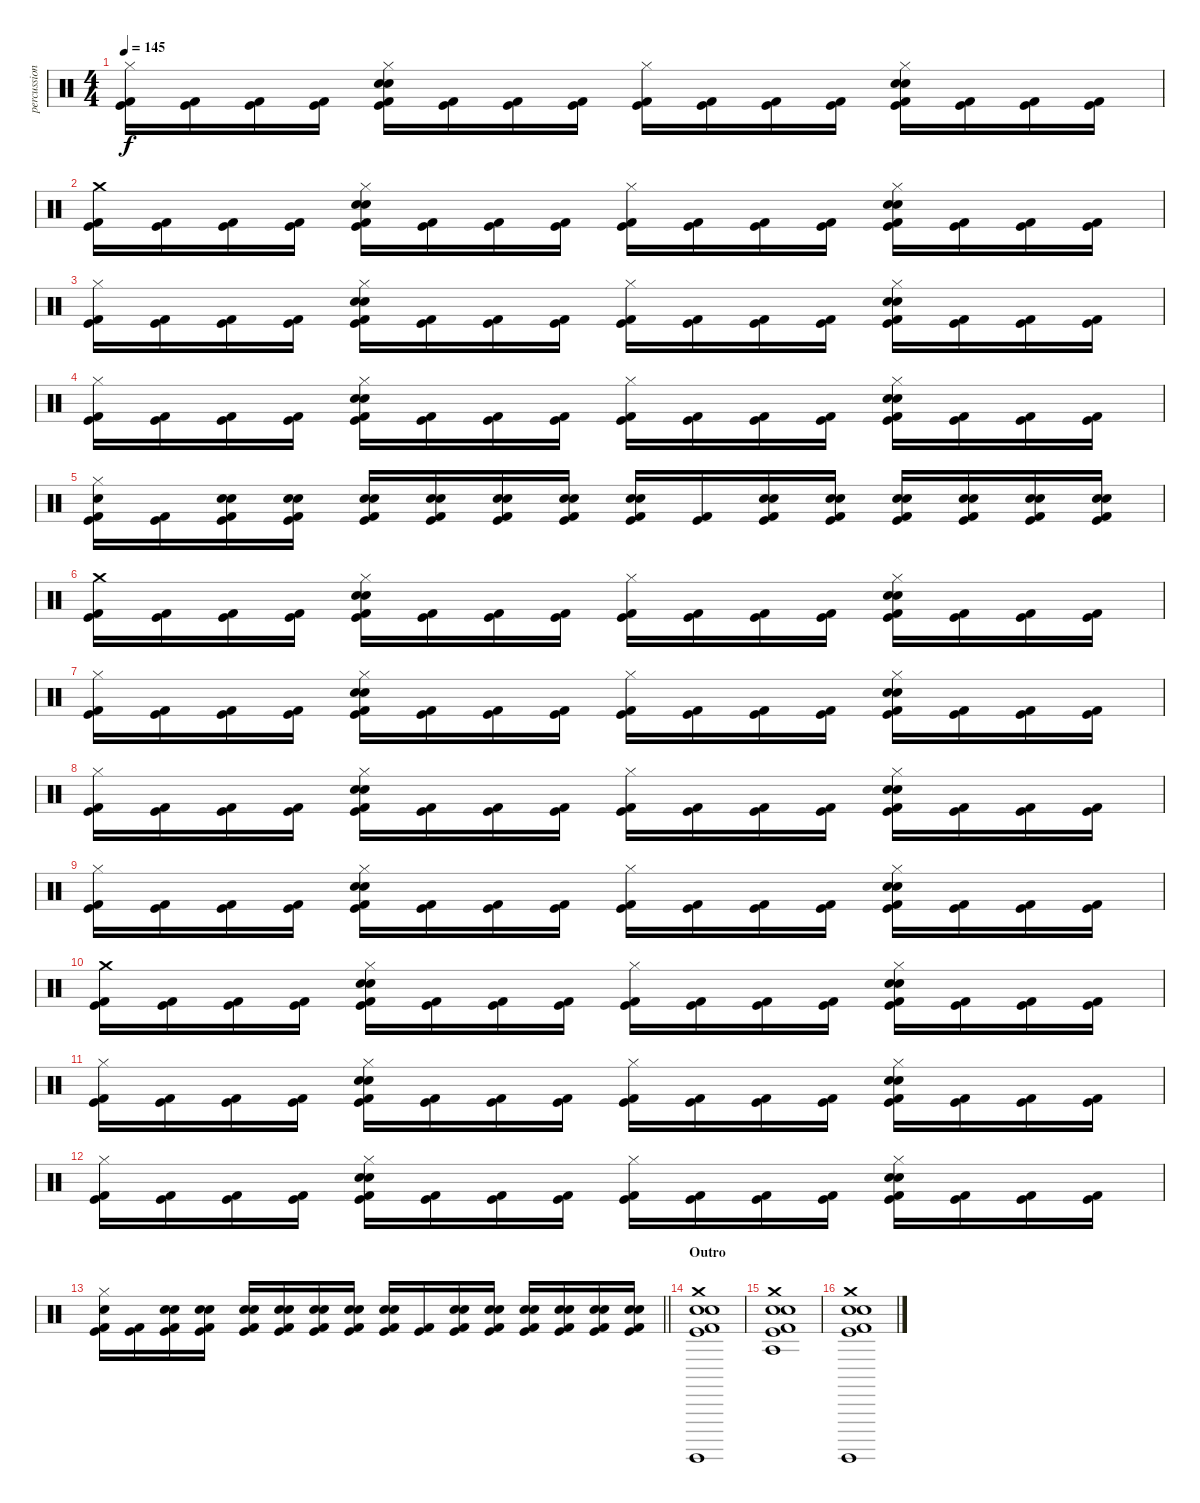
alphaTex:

\track ("percussion" "percussion") {instrument percussion}
\staff {score}
\articulation defaults
\ts (4 4)
\tempo 145
\clef neutral
\ks c
("Hi-Hat (closed)" "Kick (hit) 2" "Kick (hit)").16{dy f} ("Kick (hit) 2" "Kick (hit)").16 ("Kick (hit) 2" "Kick (hit)").16 ("Kick (hit) 2" "Kick (hit)").16 ("Hi-Hat (closed)" "Electric Snare (hit)" "Snare (hit) 2" "Kick (hit) 2" "Kick (hit)").16 ("Kick (hit) 2" "Kick (hit)").16 ("Kick (hit) 2" "Kick (hit)").16 ("Kick (hit) 2" "Kick (hit)").16 ("Hi-Hat (closed)" "Kick (hit) 2" "Kick (hit)").16 ("Kick (hit) 2" "Kick (hit)").16 ("Kick (hit) 2" "Kick (hit)").16 ("Kick (hit) 2" "Kick (hit)").16 ("Hi-Hat (closed)" "Electric Snare (hit)" "Snare (hit) 2" "Kick (hit) 2" "Kick (hit)").16 ("Kick (hit) 2" "Kick (hit)").16 ("Kick (hit) 2" "Kick (hit)").16 ("Kick (hit) 2" "Kick (hit)").16 |
("Crash medium (hit)" "Kick (hit) 2" "Kick (hit)").16 ("Kick (hit) 2" "Kick (hit)").16 ("Kick (hit) 2" "Kick (hit)").16 ("Kick (hit) 2" "Kick (hit)").16 ("Hi-Hat (closed)" "Electric Snare (hit)" "Snare (hit) 2" "Kick (hit) 2" "Kick (hit)").16 ("Kick (hit) 2" "Kick (hit)").16 ("Kick (hit) 2" "Kick (hit)").16 ("Kick (hit) 2" "Kick (hit)").16 ("Hi-Hat (closed)" "Kick (hit) 2" "Kick (hit)").16 ("Kick (hit) 2" "Kick (hit)").16 ("Kick (hit) 2" "Kick (hit)").16 ("Kick (hit) 2" "Kick (hit)").16 ("Hi-Hat (closed)" "Electric Snare (hit)" "Snare (hit) 2" "Kick (hit) 2" "Kick (hit)").16 ("Kick (hit) 2" "Kick (hit)").16 ("Kick (hit) 2" "Kick (hit)").16 ("Kick (hit) 2" "Kick (hit)").16 |
("Hi-Hat (closed)" "Kick (hit) 2" "Kick (hit)").16 ("Kick (hit) 2" "Kick (hit)").16 ("Kick (hit) 2" "Kick (hit)").16 ("Kick (hit) 2" "Kick (hit)").16 ("Hi-Hat (closed)" "Electric Snare (hit)" "Snare (hit) 2" "Kick (hit) 2" "Kick (hit)").16 ("Kick (hit) 2" "Kick (hit)").16 ("Kick (hit) 2" "Kick (hit)").16 ("Kick (hit) 2" "Kick (hit)").16 ("Hi-Hat (closed)" "Kick (hit) 2" "Kick (hit)").16 ("Kick (hit) 2" "Kick (hit)").16 ("Kick (hit) 2" "Kick (hit)").16 ("Kick (hit) 2" "Kick (hit)").16 ("Hi-Hat (closed)" "Electric Snare (hit)" "Snare (hit) 2" "Kick (hit) 2" "Kick (hit)").16 ("Kick (hit) 2" "Kick (hit)").16 ("Kick (hit) 2" "Kick (hit)").16 ("Kick (hit) 2" "Kick (hit)").16 |
("Hi-Hat (closed)" "Kick (hit) 2" "Kick (hit)").16 ("Kick (hit) 2" "Kick (hit)").16 ("Kick (hit) 2" "Kick (hit)").16 ("Kick (hit) 2" "Kick (hit)").16 ("Hi-Hat (closed)" "Electric Snare (hit)" "Snare (hit) 2" "Kick (hit) 2" "Kick (hit)").16 ("Kick (hit) 2" "Kick (hit)").16 ("Kick (hit) 2" "Kick (hit)").16 ("Kick (hit) 2" "Kick (hit)").16 ("Hi-Hat (closed)" "Kick (hit) 2" "Kick (hit)").16 ("Kick (hit) 2" "Kick (hit)").16 ("Kick (hit) 2" "Kick (hit)").16 ("Kick (hit) 2" "Kick (hit)").16 ("Hi-Hat (closed)" "Electric Snare (hit)" "Snare (hit) 2" "Kick (hit) 2" "Kick (hit)").16 ("Kick (hit) 2" "Kick (hit)").16 ("Kick (hit) 2" "Kick (hit)").16 ("Kick (hit) 2" "Kick (hit)").16 |
("Hi-Hat (closed)" "Electric Snare (hit)" "Kick (hit) 2" "Kick (hit)").16 ("Kick (hit) 2" "Kick (hit)").16 ("Electric Snare (hit)" "Snare (hit) 2" "Kick (hit) 2" "Kick (hit)").16 ("Electric Snare (hit)" "Snare (hit) 2" "Kick (hit) 2" "Kick (hit)").16 ("Electric Snare (hit)" "Snare (hit) 2" "Kick (hit) 2" "Kick (hit)").16 ("Electric Snare (hit)" "Snare (hit) 2" "Kick (hit) 2" "Kick (hit)").16 ("Electric Snare (hit)" "Snare (hit) 2" "Kick (hit) 2" "Kick (hit)").16 ("Electric Snare (hit)" "Snare (hit) 2" "Kick (hit) 2" "Kick (hit)").16 ("Electric Snare (hit)" "Snare (hit) 2" "Kick (hit) 2" "Kick (hit)").16 ("Kick (hit) 2" "Kick (hit)").16 ("Electric Snare (hit)" "Snare (hit) 2" "Kick (hit) 2" "Kick (hit)").16 ("Electric Snare (hit)" "Snare (hit) 2" "Kick (hit) 2" "Kick (hit)").16 ("Electric Snare (hit)" "Snare (hit) 2" "Kick (hit) 2" "Kick (hit)").16 ("Electric Snare (hit)" "Snare (hit) 2" "Kick (hit) 2" "Kick (hit)").16 ("Electric Snare (hit)" "Snare (hit) 2" "Kick (hit) 2" "Kick (hit)").16 ("Electric Snare (hit)" "Snare (hit) 2" "Kick (hit) 2" "Kick (hit)").16 |
("Crash medium (hit)" "Kick (hit) 2" "Kick (hit)").16 ("Kick (hit) 2" "Kick (hit)").16 ("Kick (hit) 2" "Kick (hit)").16 ("Kick (hit) 2" "Kick (hit)").16 ("Hi-Hat (closed)" "Electric Snare (hit)" "Snare (hit) 2" "Kick (hit) 2" "Kick (hit)").16 ("Kick (hit) 2" "Kick (hit)").16 ("Kick (hit) 2" "Kick (hit)").16 ("Kick (hit) 2" "Kick (hit)").16 ("Hi-Hat (closed)" "Kick (hit) 2" "Kick (hit)").16 ("Kick (hit) 2" "Kick (hit)").16 ("Kick (hit) 2" "Kick (hit)").16 ("Kick (hit) 2" "Kick (hit)").16 ("Hi-Hat (closed)" "Electric Snare (hit)" "Snare (hit) 2" "Kick (hit) 2" "Kick (hit)").16 ("Kick (hit) 2" "Kick (hit)").16 ("Kick (hit) 2" "Kick (hit)").16 ("Kick (hit) 2" "Kick (hit)").16 |
("Hi-Hat (closed)" "Kick (hit) 2" "Kick (hit)").16 ("Kick (hit) 2" "Kick (hit)").16 ("Kick (hit) 2" "Kick (hit)").16 ("Kick (hit) 2" "Kick (hit)").16 ("Hi-Hat (closed)" "Electric Snare (hit)" "Snare (hit) 2" "Kick (hit) 2" "Kick (hit)").16 ("Kick (hit) 2" "Kick (hit)").16 ("Kick (hit) 2" "Kick (hit)").16 ("Kick (hit) 2" "Kick (hit)").16 ("Hi-Hat (closed)" "Kick (hit) 2" "Kick (hit)").16 ("Kick (hit) 2" "Kick (hit)").16 ("Kick (hit) 2" "Kick (hit)").16 ("Kick (hit) 2" "Kick (hit)").16 ("Hi-Hat (closed)" "Electric Snare (hit)" "Snare (hit) 2" "Kick (hit) 2" "Kick (hit)").16 ("Kick (hit) 2" "Kick (hit)").16 ("Kick (hit) 2" "Kick (hit)").16 ("Kick (hit) 2" "Kick (hit)").16 |
("Hi-Hat (closed)" "Kick (hit) 2" "Kick (hit)").16 ("Kick (hit) 2" "Kick (hit)").16 ("Kick (hit) 2" "Kick (hit)").16 ("Kick (hit) 2" "Kick (hit)").16 ("Hi-Hat (closed)" "Electric Snare (hit)" "Snare (hit) 2" "Kick (hit) 2" "Kick (hit)").16 ("Kick (hit) 2" "Kick (hit)").16 ("Kick (hit) 2" "Kick (hit)").16 ("Kick (hit) 2" "Kick (hit)").16 ("Hi-Hat (closed)" "Kick (hit) 2" "Kick (hit)").16 ("Kick (hit) 2" "Kick (hit)").16 ("Kick (hit) 2" "Kick (hit)").16 ("Kick (hit) 2" "Kick (hit)").16 ("Hi-Hat (closed)" "Electric Snare (hit)" "Snare (hit) 2" "Kick (hit) 2" "Kick (hit)").16 ("Kick (hit) 2" "Kick (hit)").16 ("Kick (hit) 2" "Kick (hit)").16 ("Kick (hit) 2" "Kick (hit)").16 |
("Hi-Hat (closed)" "Kick (hit) 2" "Kick (hit)").16 ("Kick (hit) 2" "Kick (hit)").16 ("Kick (hit) 2" "Kick (hit)").16 ("Kick (hit) 2" "Kick (hit)").16 ("Hi-Hat (closed)" "Electric Snare (hit)" "Snare (hit) 2" "Kick (hit) 2" "Kick (hit)").16 ("Kick (hit) 2" "Kick (hit)").16 ("Kick (hit) 2" "Kick (hit)").16 ("Kick (hit) 2" "Kick (hit)").16 ("Hi-Hat (closed)" "Kick (hit) 2" "Kick (hit)").16 ("Kick (hit) 2" "Kick (hit)").16 ("Kick (hit) 2" "Kick (hit)").16 ("Kick (hit) 2" "Kick (hit)").16 ("Hi-Hat (closed)" "Electric Snare (hit)" "Snare (hit) 2" "Kick (hit) 2" "Kick (hit)").16 ("Kick (hit) 2" "Kick (hit)").16 ("Kick (hit) 2" "Kick (hit)").16 ("Kick (hit) 2" "Kick (hit)").16 |
("Crash medium (hit)" "Kick (hit) 2" "Kick (hit)").16 ("Kick (hit) 2" "Kick (hit)").16 ("Kick (hit) 2" "Kick (hit)").16 ("Kick (hit) 2" "Kick (hit)").16 ("Hi-Hat (closed)" "Electric Snare (hit)" "Snare (hit) 2" "Kick (hit) 2" "Kick (hit)").16 ("Kick (hit) 2" "Kick (hit)").16 ("Kick (hit) 2" "Kick (hit)").16 ("Kick (hit) 2" "Kick (hit)").16 ("Hi-Hat (closed)" "Kick (hit) 2" "Kick (hit)").16 ("Kick (hit) 2" "Kick (hit)").16 ("Kick (hit) 2" "Kick (hit)").16 ("Kick (hit) 2" "Kick (hit)").16 ("Hi-Hat (closed)" "Electric Snare (hit)" "Snare (hit) 2" "Kick (hit) 2" "Kick (hit)").16 ("Kick (hit) 2" "Kick (hit)").16 ("Kick (hit) 2" "Kick (hit)").16 ("Kick (hit) 2" "Kick (hit)").16 |
("Hi-Hat (closed)" "Kick (hit) 2" "Kick (hit)").16 ("Kick (hit) 2" "Kick (hit)").16 ("Kick (hit) 2" "Kick (hit)").16 ("Kick (hit) 2" "Kick (hit)").16 ("Hi-Hat (closed)" "Electric Snare (hit)" "Snare (hit) 2" "Kick (hit) 2" "Kick (hit)").16 ("Kick (hit) 2" "Kick (hit)").16 ("Kick (hit) 2" "Kick (hit)").16 ("Kick (hit) 2" "Kick (hit)").16 ("Hi-Hat (closed)" "Kick (hit) 2" "Kick (hit)").16 ("Kick (hit) 2" "Kick (hit)").16 ("Kick (hit) 2" "Kick (hit)").16 ("Kick (hit) 2" "Kick (hit)").16 ("Hi-Hat (closed)" "Electric Snare (hit)" "Snare (hit) 2" "Kick (hit) 2" "Kick (hit)").16 ("Kick (hit) 2" "Kick (hit)").16 ("Kick (hit) 2" "Kick (hit)").16 ("Kick (hit) 2" "Kick (hit)").16 |
("Hi-Hat (closed)" "Kick (hit) 2" "Kick (hit)").16 ("Kick (hit) 2" "Kick (hit)").16 ("Kick (hit) 2" "Kick (hit)").16 ("Kick (hit) 2" "Kick (hit)").16 ("Hi-Hat (closed)" "Electric Snare (hit)" "Snare (hit) 2" "Kick (hit) 2" "Kick (hit)").16 ("Kick (hit) 2" "Kick (hit)").16 ("Kick (hit) 2" "Kick (hit)").16 ("Kick (hit) 2" "Kick (hit)").16 ("Hi-Hat (closed)" "Kick (hit) 2" "Kick (hit)").16 ("Kick (hit) 2" "Kick (hit)").16 ("Kick (hit) 2" "Kick (hit)").16 ("Kick (hit) 2" "Kick (hit)").16 ("Hi-Hat (closed)" "Electric Snare (hit)" "Snare (hit) 2" "Kick (hit) 2" "Kick (hit)").16 ("Kick (hit) 2" "Kick (hit)").16 ("Kick (hit) 2" "Kick (hit)").16 ("Kick (hit) 2" "Kick (hit)").16 |
\barLineRight lightlight
("Hi-Hat (closed)" "Electric Snare (hit)" "Kick (hit) 2" "Kick (hit)").16 ("Kick (hit) 2" "Kick (hit)").16 ("Electric Snare (hit)" "Snare (hit) 2" "Kick (hit) 2" "Kick (hit)").16 ("Electric Snare (hit)" "Snare (hit) 2" "Kick (hit) 2" "Kick (hit)").16 ("Electric Snare (hit)" "Snare (hit) 2" "Kick (hit) 2" "Kick (hit)").16 ("Electric Snare (hit)" "Snare (hit) 2" "Kick (hit) 2" "Kick (hit)").16 ("Electric Snare (hit)" "Snare (hit) 2" "Kick (hit) 2" "Kick (hit)").16 ("Electric Snare (hit)" "Snare (hit) 2" "Kick (hit) 2" "Kick (hit)").16 ("Electric Snare (hit)" "Snare (hit) 2" "Kick (hit) 2" "Kick (hit)").16 ("Kick (hit) 2" "Kick (hit)").16 ("Electric Snare (hit)" "Snare (hit) 2" "Kick (hit) 2" "Kick (hit)").16 ("Electric Snare (hit)" "Snare (hit) 2" "Kick (hit) 2" "Kick (hit)").16 ("Electric Snare (hit)" "Snare (hit) 2" "Kick (hit) 2" "Kick (hit)").16 ("Electric Snare (hit)" "Snare (hit) 2" "Kick (hit) 2" "Kick (hit)").16 ("Electric Snare (hit)" "Snare (hit) 2" "Kick (hit) 2" "Kick (hit)").16 ("Electric Snare (hit)" "Snare (hit) 2" "Kick (hit) 2" "Kick (hit)").16 |
\section ("" "Outro")
("Crash medium (hit)" "Electric Snare (hit)" "Snare (hit) 2" "Surdo (hit)" "Kick (hit)" "Kick (hit) 2").1 |
("Crash medium (hit)" "Electric Snare (hit)" "Snare (hit) 2" "Agogo tow (hit)" "Kick (hit)" "Kick (hit) 2").1 |
("Crash medium (hit)" "Electric Snare (hit)" "Snare (hit) 2" "Surdo (hit)" "Kick (hit)" "Kick (hit) 2").1
